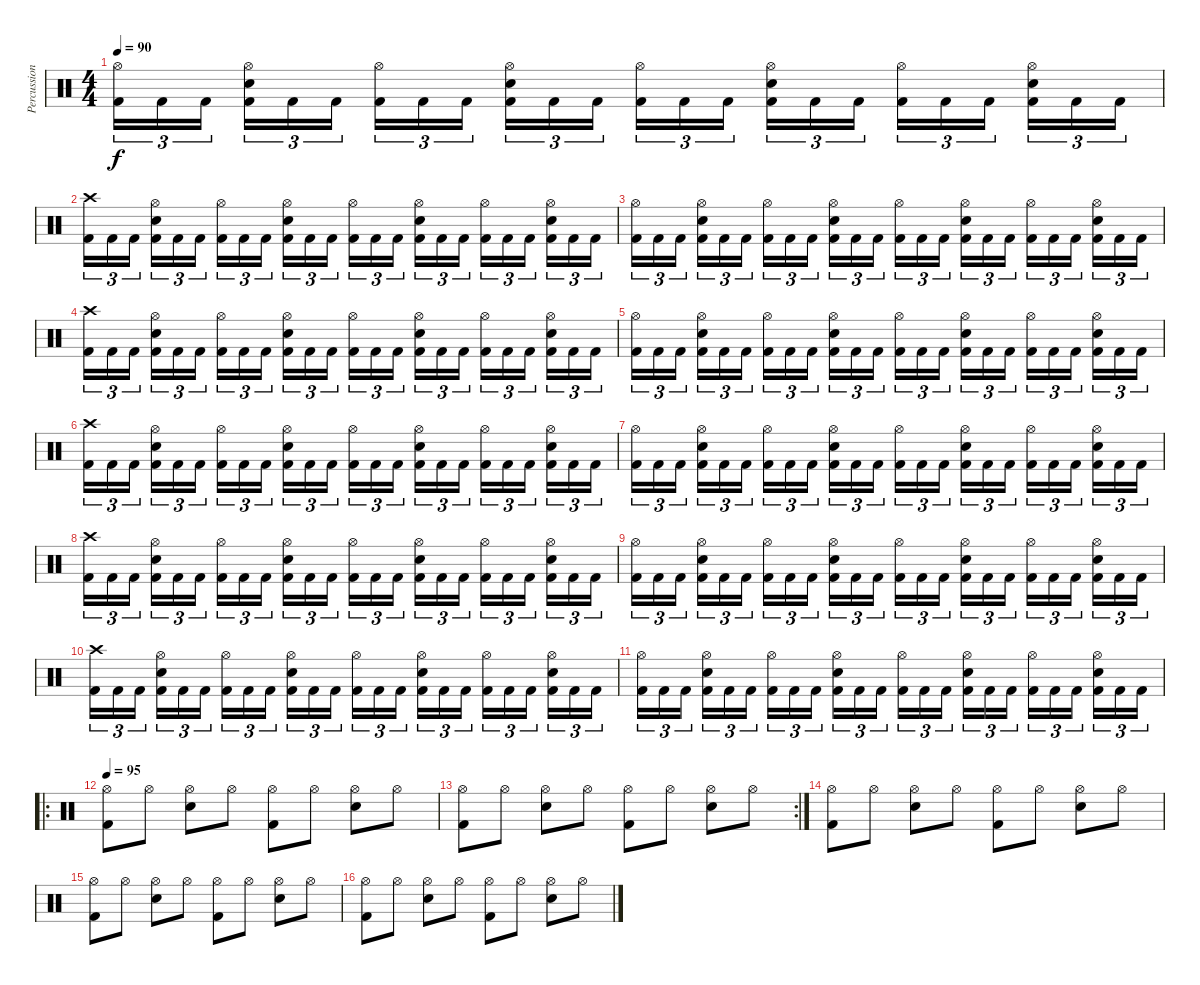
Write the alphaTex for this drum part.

\track ("Percussion" "Percussion") {instrument percussion}
\staff {score}
\articulation defaults
\ts (4 4)
\tempo 90
\clef neutral
\ks c
("Hi-Hat (open)" "Kick (hit) 2").16{tu (3 2) dy f} "Kick (hit) 2".16{tu (3 2)} "Kick (hit) 2".16{tu (3 2)} ("Hi-Hat (open)" "Electric Snare (hit)" "Kick (hit) 2").16{tu (3 2)} "Kick (hit) 2".16{tu (3 2)} "Kick (hit) 2".16{tu (3 2)} ("Hi-Hat (open)" "Kick (hit) 2").16{tu (3 2)} "Kick (hit) 2".16{tu (3 2)} "Kick (hit) 2".16{tu (3 2)} ("Hi-Hat (open)" "Electric Snare (hit)" "Kick (hit) 2").16{tu (3 2)} "Kick (hit) 2".16{tu (3 2)} "Kick (hit) 2".16{tu (3 2)} ("Hi-Hat (open)" "Kick (hit) 2").16{tu (3 2)} "Kick (hit) 2".16{tu (3 2)} "Kick (hit) 2".16{tu (3 2)} ("Hi-Hat (open)" "Electric Snare (hit)" "Kick (hit) 2").16{tu (3 2)} "Kick (hit) 2".16{tu (3 2)} "Kick (hit) 2".16{tu (3 2)} ("Hi-Hat (open)" "Kick (hit) 2").16{tu (3 2)} "Kick (hit) 2".16{tu (3 2)} "Kick (hit) 2".16{tu (3 2)} ("Hi-Hat (open)" "Electric Snare (hit)" "Kick (hit) 2").16{tu (3 2)} "Kick (hit) 2".16{tu (3 2)} "Kick (hit) 2".16{tu (3 2)} |
("Crash high (hit)" "Kick (hit) 2").16{tu (3 2)} "Kick (hit) 2".16{tu (3 2)} "Kick (hit) 2".16{tu (3 2)} ("Hi-Hat (open)" "Electric Snare (hit)" "Kick (hit) 2").16{tu (3 2)} "Kick (hit) 2".16{tu (3 2)} "Kick (hit) 2".16{tu (3 2)} ("Hi-Hat (open)" "Kick (hit) 2").16{tu (3 2)} "Kick (hit) 2".16{tu (3 2)} "Kick (hit) 2".16{tu (3 2)} ("Hi-Hat (open)" "Electric Snare (hit)" "Kick (hit) 2").16{tu (3 2)} "Kick (hit) 2".16{tu (3 2)} "Kick (hit) 2".16{tu (3 2)} ("Hi-Hat (open)" "Kick (hit) 2").16{tu (3 2)} "Kick (hit) 2".16{tu (3 2)} "Kick (hit) 2".16{tu (3 2)} ("Hi-Hat (open)" "Electric Snare (hit)" "Kick (hit) 2").16{tu (3 2)} "Kick (hit) 2".16{tu (3 2)} "Kick (hit) 2".16{tu (3 2)} ("Hi-Hat (open)" "Kick (hit) 2").16{tu (3 2)} "Kick (hit) 2".16{tu (3 2)} "Kick (hit) 2".16{tu (3 2)} ("Hi-Hat (open)" "Electric Snare (hit)" "Kick (hit) 2").16{tu (3 2)} "Kick (hit) 2".16{tu (3 2)} "Kick (hit) 2".16{tu (3 2)} |
("Hi-Hat (open)" "Kick (hit) 2").16{tu (3 2)} "Kick (hit) 2".16{tu (3 2)} "Kick (hit) 2".16{tu (3 2)} ("Hi-Hat (open)" "Electric Snare (hit)" "Kick (hit) 2").16{tu (3 2)} "Kick (hit) 2".16{tu (3 2)} "Kick (hit) 2".16{tu (3 2)} ("Hi-Hat (open)" "Kick (hit) 2").16{tu (3 2)} "Kick (hit) 2".16{tu (3 2)} "Kick (hit) 2".16{tu (3 2)} ("Hi-Hat (open)" "Electric Snare (hit)" "Kick (hit) 2").16{tu (3 2)} "Kick (hit) 2".16{tu (3 2)} "Kick (hit) 2".16{tu (3 2)} ("Hi-Hat (open)" "Kick (hit) 2").16{tu (3 2)} "Kick (hit) 2".16{tu (3 2)} "Kick (hit) 2".16{tu (3 2)} ("Hi-Hat (open)" "Electric Snare (hit)" "Kick (hit) 2").16{tu (3 2)} "Kick (hit) 2".16{tu (3 2)} "Kick (hit) 2".16{tu (3 2)} ("Hi-Hat (open)" "Kick (hit) 2").16{tu (3 2)} "Kick (hit) 2".16{tu (3 2)} "Kick (hit) 2".16{tu (3 2)} ("Hi-Hat (open)" "Electric Snare (hit)" "Kick (hit) 2").16{tu (3 2)} "Kick (hit) 2".16{tu (3 2)} "Kick (hit) 2".16{tu (3 2)} |
("Crash high (hit)" "Kick (hit) 2").16{tu (3 2)} "Kick (hit) 2".16{tu (3 2)} "Kick (hit) 2".16{tu (3 2)} ("Hi-Hat (open)" "Electric Snare (hit)" "Kick (hit) 2").16{tu (3 2)} "Kick (hit) 2".16{tu (3 2)} "Kick (hit) 2".16{tu (3 2)} ("Hi-Hat (open)" "Kick (hit) 2").16{tu (3 2)} "Kick (hit) 2".16{tu (3 2)} "Kick (hit) 2".16{tu (3 2)} ("Hi-Hat (open)" "Electric Snare (hit)" "Kick (hit) 2").16{tu (3 2)} "Kick (hit) 2".16{tu (3 2)} "Kick (hit) 2".16{tu (3 2)} ("Hi-Hat (open)" "Kick (hit) 2").16{tu (3 2)} "Kick (hit) 2".16{tu (3 2)} "Kick (hit) 2".16{tu (3 2)} ("Hi-Hat (open)" "Electric Snare (hit)" "Kick (hit) 2").16{tu (3 2)} "Kick (hit) 2".16{tu (3 2)} "Kick (hit) 2".16{tu (3 2)} ("Hi-Hat (open)" "Kick (hit) 2").16{tu (3 2)} "Kick (hit) 2".16{tu (3 2)} "Kick (hit) 2".16{tu (3 2)} ("Hi-Hat (open)" "Electric Snare (hit)" "Kick (hit) 2").16{tu (3 2)} "Kick (hit) 2".16{tu (3 2)} "Kick (hit) 2".16{tu (3 2)} |
("Hi-Hat (open)" "Kick (hit) 2").16{tu (3 2)} "Kick (hit) 2".16{tu (3 2)} "Kick (hit) 2".16{tu (3 2)} ("Hi-Hat (open)" "Electric Snare (hit)" "Kick (hit) 2").16{tu (3 2)} "Kick (hit) 2".16{tu (3 2)} "Kick (hit) 2".16{tu (3 2)} ("Hi-Hat (open)" "Kick (hit) 2").16{tu (3 2)} "Kick (hit) 2".16{tu (3 2)} "Kick (hit) 2".16{tu (3 2)} ("Hi-Hat (open)" "Electric Snare (hit)" "Kick (hit) 2").16{tu (3 2)} "Kick (hit) 2".16{tu (3 2)} "Kick (hit) 2".16{tu (3 2)} ("Hi-Hat (open)" "Kick (hit) 2").16{tu (3 2)} "Kick (hit) 2".16{tu (3 2)} "Kick (hit) 2".16{tu (3 2)} ("Hi-Hat (open)" "Electric Snare (hit)" "Kick (hit) 2").16{tu (3 2)} "Kick (hit) 2".16{tu (3 2)} "Kick (hit) 2".16{tu (3 2)} ("Hi-Hat (open)" "Kick (hit) 2").16{tu (3 2)} "Kick (hit) 2".16{tu (3 2)} "Kick (hit) 2".16{tu (3 2)} ("Hi-Hat (open)" "Electric Snare (hit)" "Kick (hit) 2").16{tu (3 2)} "Kick (hit) 2".16{tu (3 2)} "Kick (hit) 2".16{tu (3 2)} |
("Crash high (hit)" "Kick (hit) 2").16{tu (3 2)} "Kick (hit) 2".16{tu (3 2)} "Kick (hit) 2".16{tu (3 2)} ("Hi-Hat (open)" "Electric Snare (hit)" "Kick (hit) 2").16{tu (3 2)} "Kick (hit) 2".16{tu (3 2)} "Kick (hit) 2".16{tu (3 2)} ("Hi-Hat (open)" "Kick (hit) 2").16{tu (3 2)} "Kick (hit) 2".16{tu (3 2)} "Kick (hit) 2".16{tu (3 2)} ("Hi-Hat (open)" "Electric Snare (hit)" "Kick (hit) 2").16{tu (3 2)} "Kick (hit) 2".16{tu (3 2)} "Kick (hit) 2".16{tu (3 2)} ("Hi-Hat (open)" "Kick (hit) 2").16{tu (3 2)} "Kick (hit) 2".16{tu (3 2)} "Kick (hit) 2".16{tu (3 2)} ("Hi-Hat (open)" "Electric Snare (hit)" "Kick (hit) 2").16{tu (3 2)} "Kick (hit) 2".16{tu (3 2)} "Kick (hit) 2".16{tu (3 2)} ("Hi-Hat (open)" "Kick (hit) 2").16{tu (3 2)} "Kick (hit) 2".16{tu (3 2)} "Kick (hit) 2".16{tu (3 2)} ("Hi-Hat (open)" "Electric Snare (hit)" "Kick (hit) 2").16{tu (3 2)} "Kick (hit) 2".16{tu (3 2)} "Kick (hit) 2".16{tu (3 2)} |
("Hi-Hat (open)" "Kick (hit) 2").16{tu (3 2)} "Kick (hit) 2".16{tu (3 2)} "Kick (hit) 2".16{tu (3 2)} ("Hi-Hat (open)" "Electric Snare (hit)" "Kick (hit) 2").16{tu (3 2)} "Kick (hit) 2".16{tu (3 2)} "Kick (hit) 2".16{tu (3 2)} ("Hi-Hat (open)" "Kick (hit) 2").16{tu (3 2)} "Kick (hit) 2".16{tu (3 2)} "Kick (hit) 2".16{tu (3 2)} ("Hi-Hat (open)" "Electric Snare (hit)" "Kick (hit) 2").16{tu (3 2)} "Kick (hit) 2".16{tu (3 2)} "Kick (hit) 2".16{tu (3 2)} ("Hi-Hat (open)" "Kick (hit) 2").16{tu (3 2)} "Kick (hit) 2".16{tu (3 2)} "Kick (hit) 2".16{tu (3 2)} ("Hi-Hat (open)" "Electric Snare (hit)" "Kick (hit) 2").16{tu (3 2)} "Kick (hit) 2".16{tu (3 2)} "Kick (hit) 2".16{tu (3 2)} ("Hi-Hat (open)" "Kick (hit) 2").16{tu (3 2)} "Kick (hit) 2".16{tu (3 2)} "Kick (hit) 2".16{tu (3 2)} ("Hi-Hat (open)" "Electric Snare (hit)" "Kick (hit) 2").16{tu (3 2)} "Kick (hit) 2".16{tu (3 2)} "Kick (hit) 2".16{tu (3 2)} |
("Crash high (hit)" "Kick (hit) 2").16{tu (3 2)} "Kick (hit) 2".16{tu (3 2)} "Kick (hit) 2".16{tu (3 2)} ("Hi-Hat (open)" "Electric Snare (hit)" "Kick (hit) 2").16{tu (3 2)} "Kick (hit) 2".16{tu (3 2)} "Kick (hit) 2".16{tu (3 2)} ("Hi-Hat (open)" "Kick (hit) 2").16{tu (3 2)} "Kick (hit) 2".16{tu (3 2)} "Kick (hit) 2".16{tu (3 2)} ("Hi-Hat (open)" "Electric Snare (hit)" "Kick (hit) 2").16{tu (3 2)} "Kick (hit) 2".16{tu (3 2)} "Kick (hit) 2".16{tu (3 2)} ("Hi-Hat (open)" "Kick (hit) 2").16{tu (3 2)} "Kick (hit) 2".16{tu (3 2)} "Kick (hit) 2".16{tu (3 2)} ("Hi-Hat (open)" "Electric Snare (hit)" "Kick (hit) 2").16{tu (3 2)} "Kick (hit) 2".16{tu (3 2)} "Kick (hit) 2".16{tu (3 2)} ("Hi-Hat (open)" "Kick (hit) 2").16{tu (3 2)} "Kick (hit) 2".16{tu (3 2)} "Kick (hit) 2".16{tu (3 2)} ("Hi-Hat (open)" "Electric Snare (hit)" "Kick (hit) 2").16{tu (3 2)} "Kick (hit) 2".16{tu (3 2)} "Kick (hit) 2".16{tu (3 2)} |
("Hi-Hat (open)" "Kick (hit) 2").16{tu (3 2)} "Kick (hit) 2".16{tu (3 2)} "Kick (hit) 2".16{tu (3 2)} ("Hi-Hat (open)" "Electric Snare (hit)" "Kick (hit) 2").16{tu (3 2)} "Kick (hit) 2".16{tu (3 2)} "Kick (hit) 2".16{tu (3 2)} ("Hi-Hat (open)" "Kick (hit) 2").16{tu (3 2)} "Kick (hit) 2".16{tu (3 2)} "Kick (hit) 2".16{tu (3 2)} ("Hi-Hat (open)" "Electric Snare (hit)" "Kick (hit) 2").16{tu (3 2)} "Kick (hit) 2".16{tu (3 2)} "Kick (hit) 2".16{tu (3 2)} ("Hi-Hat (open)" "Kick (hit) 2").16{tu (3 2)} "Kick (hit) 2".16{tu (3 2)} "Kick (hit) 2".16{tu (3 2)} ("Hi-Hat (open)" "Electric Snare (hit)" "Kick (hit) 2").16{tu (3 2)} "Kick (hit) 2".16{tu (3 2)} "Kick (hit) 2".16{tu (3 2)} ("Hi-Hat (open)" "Kick (hit) 2").16{tu (3 2)} "Kick (hit) 2".16{tu (3 2)} "Kick (hit) 2".16{tu (3 2)} ("Hi-Hat (open)" "Electric Snare (hit)" "Kick (hit) 2").16{tu (3 2)} "Kick (hit) 2".16{tu (3 2)} "Kick (hit) 2".16{tu (3 2)} |
("Crash high (hit)" "Kick (hit) 2").16{tu (3 2)} "Kick (hit) 2".16{tu (3 2)} "Kick (hit) 2".16{tu (3 2)} ("Hi-Hat (open)" "Electric Snare (hit)" "Kick (hit) 2").16{tu (3 2)} "Kick (hit) 2".16{tu (3 2)} "Kick (hit) 2".16{tu (3 2)} ("Hi-Hat (open)" "Kick (hit) 2").16{tu (3 2)} "Kick (hit) 2".16{tu (3 2)} "Kick (hit) 2".16{tu (3 2)} ("Hi-Hat (open)" "Electric Snare (hit)" "Kick (hit) 2").16{tu (3 2)} "Kick (hit) 2".16{tu (3 2)} "Kick (hit) 2".16{tu (3 2)} ("Hi-Hat (open)" "Kick (hit) 2").16{tu (3 2)} "Kick (hit) 2".16{tu (3 2)} "Kick (hit) 2".16{tu (3 2)} ("Hi-Hat (open)" "Electric Snare (hit)" "Kick (hit) 2").16{tu (3 2)} "Kick (hit) 2".16{tu (3 2)} "Kick (hit) 2".16{tu (3 2)} ("Hi-Hat (open)" "Kick (hit) 2").16{tu (3 2)} "Kick (hit) 2".16{tu (3 2)} "Kick (hit) 2".16{tu (3 2)} ("Hi-Hat (open)" "Electric Snare (hit)" "Kick (hit) 2").16{tu (3 2)} "Kick (hit) 2".16{tu (3 2)} "Kick (hit) 2".16{tu (3 2)} |
("Hi-Hat (open)" "Kick (hit) 2").16{tu (3 2)} "Kick (hit) 2".16{tu (3 2)} "Kick (hit) 2".16{tu (3 2)} ("Hi-Hat (open)" "Electric Snare (hit)" "Kick (hit) 2").16{tu (3 2)} "Kick (hit) 2".16{tu (3 2)} "Kick (hit) 2".16{tu (3 2)} ("Hi-Hat (open)" "Kick (hit) 2").16{tu (3 2)} "Kick (hit) 2".16{tu (3 2)} "Kick (hit) 2".16{tu (3 2)} ("Hi-Hat (open)" "Electric Snare (hit)" "Kick (hit) 2").16{tu (3 2)} "Kick (hit) 2".16{tu (3 2)} "Kick (hit) 2".16{tu (3 2)} ("Hi-Hat (open)" "Kick (hit) 2").16{tu (3 2)} "Kick (hit) 2".16{tu (3 2)} "Kick (hit) 2".16{tu (3 2)} ("Hi-Hat (open)" "Electric Snare (hit)" "Kick (hit) 2").16{tu (3 2)} "Kick (hit) 2".16{tu (3 2)} "Kick (hit) 2".16{tu (3 2)} ("Hi-Hat (open)" "Kick (hit) 2").16{tu (3 2)} "Kick (hit) 2".16{tu (3 2)} "Kick (hit) 2".16{tu (3 2)} ("Hi-Hat (open)" "Electric Snare (hit)" "Kick (hit) 2").16{tu (3 2)} "Kick (hit) 2".16{tu (3 2)} "Kick (hit) 2".16{tu (3 2)} |
\ro
\tempo 95
("Hi-Hat (open)" "Kick (hit) 2").8 "Hi-Hat (open)".8 ("Hi-Hat (open)" "Electric Snare (hit)").8 "Hi-Hat (open)".8 ("Hi-Hat (open)" "Kick (hit) 2").8 "Hi-Hat (open)".8 ("Hi-Hat (open)" "Electric Snare (hit)").8 "Hi-Hat (open)".8 |
\rc 2
("Hi-Hat (open)" "Kick (hit) 2").8 "Hi-Hat (open)".8 ("Hi-Hat (open)" "Electric Snare (hit)").8 "Hi-Hat (open)".8 ("Hi-Hat (open)" "Kick (hit) 2").8 "Hi-Hat (open)".8 ("Hi-Hat (open)" "Electric Snare (hit)").8 "Hi-Hat (open)".8 |
("Hi-Hat (open)" "Kick (hit) 2").8 "Hi-Hat (open)".8 ("Hi-Hat (open)" "Electric Snare (hit)").8 "Hi-Hat (open)".8 ("Hi-Hat (open)" "Kick (hit) 2").8 "Hi-Hat (open)".8 ("Hi-Hat (open)" "Electric Snare (hit)").8 "Hi-Hat (open)".8 |
("Hi-Hat (open)" "Kick (hit) 2").8 "Hi-Hat (open)".8 ("Hi-Hat (open)" "Electric Snare (hit)").8 "Hi-Hat (open)".8 ("Hi-Hat (open)" "Kick (hit) 2").8 "Hi-Hat (open)".8 ("Hi-Hat (open)" "Electric Snare (hit)").8 "Hi-Hat (open)".8 |
("Hi-Hat (open)" "Kick (hit) 2").8 "Hi-Hat (open)".8 ("Hi-Hat (open)" "Electric Snare (hit)").8 "Hi-Hat (open)".8 ("Hi-Hat (open)" "Kick (hit) 2").8 "Hi-Hat (open)".8 ("Hi-Hat (open)" "Electric Snare (hit)").8 "Hi-Hat (open)".8
